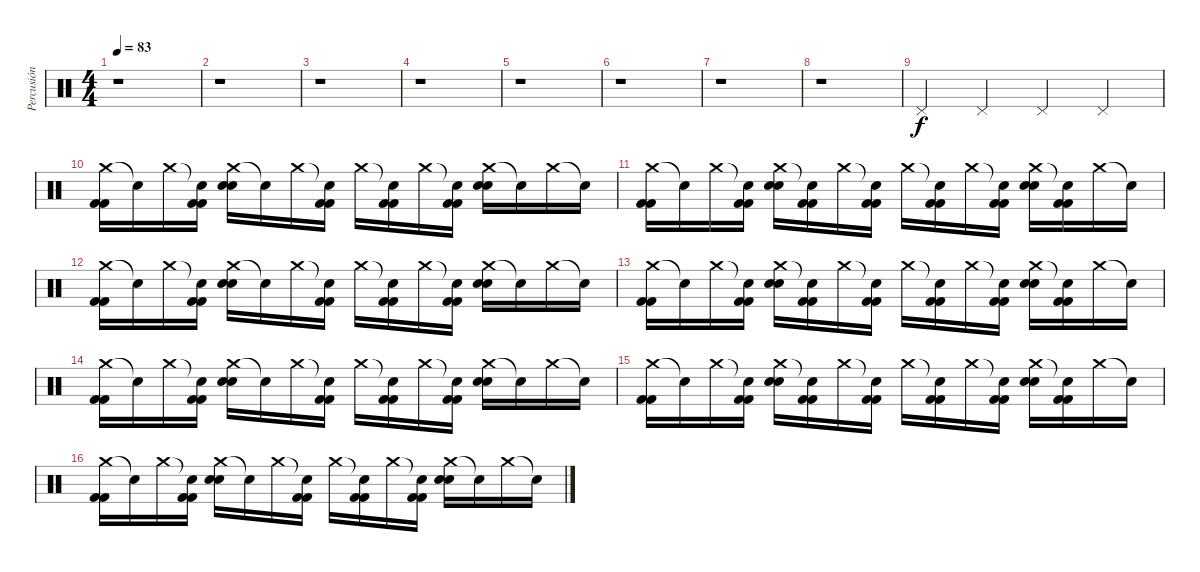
\track ("Percusión" "Percusión") {instrument percussion}
\staff {score}
\articulation defaults
\ts (4 4)
\tempo 83
\clef neutral
\ks c
r.1{dy f} |
r.1 |
r.1 |
r.1 |
r.1 |
r.1 |
r.1 |
r.1 |
"Pedal Hi-Hat (hit)".4 "Pedal Hi-Hat (hit)".4 "Pedal Hi-Hat (hit)".4 "Pedal Hi-Hat (hit)".4 |
("Crash medium (hit)" "Kick (hit) 2" "Kick (hit) 2").16 "Snare (hit)"{t}.16 "Crash medium (hit)".16 ("Snare (hit)"{t} "Kick (hit) 2" "Kick (hit) 2").16 ("Crash medium (hit)" "Electric Snare (hit)" "Electric Snare (hit)").16 "Snare (hit)"{t}.16 "Crash medium (hit)".16 ("Snare (hit)"{t} "Kick (hit) 2" "Kick (hit) 2").16 "Crash medium (hit)".16 ("Snare (hit)"{t} "Kick (hit) 2" "Kick (hit) 2").16 "Crash medium (hit)".16 ("Snare (hit)"{t} "Kick (hit) 2" "Kick (hit) 2").16 ("Crash medium (hit)" "Electric Snare (hit)" "Electric Snare (hit)").16 "Snare (hit)"{t}.16 "Crash medium (hit)".16 "Snare (hit)"{t}.16 |
("Crash medium (hit)" "Kick (hit) 2" "Kick (hit) 2").16 "Snare (hit)"{t}.16 "Crash medium (hit)".16 ("Snare (hit)"{t} "Kick (hit) 2" "Kick (hit) 2").16 ("Crash medium (hit)" "Electric Snare (hit)" "Electric Snare (hit)").16 ("Snare (hit)"{t} "Kick (hit) 2" "Kick (hit) 2").16 "Crash medium (hit)".16 ("Snare (hit)"{t} "Kick (hit) 2" "Kick (hit) 2").16 "Crash medium (hit)".16 ("Snare (hit)"{t} "Kick (hit) 2" "Kick (hit) 2").16 "Crash medium (hit)".16 ("Snare (hit)"{t} "Kick (hit) 2" "Kick (hit) 2").16 ("Crash medium (hit)" "Electric Snare (hit)" "Electric Snare (hit)").16 ("Snare (hit)"{t} "Kick (hit) 2" "Kick (hit) 2").16 "Crash medium (hit)".16 "Snare (hit)"{t}.16 |
("Crash medium (hit)" "Kick (hit) 2" "Kick (hit) 2").16 "Snare (hit)"{t}.16 "Crash medium (hit)".16 ("Snare (hit)"{t} "Kick (hit) 2" "Kick (hit) 2").16 ("Crash medium (hit)" "Electric Snare (hit)" "Electric Snare (hit)").16 "Snare (hit)"{t}.16 "Crash medium (hit)".16 ("Snare (hit)"{t} "Kick (hit) 2" "Kick (hit) 2").16 "Crash medium (hit)".16 ("Snare (hit)"{t} "Kick (hit) 2" "Kick (hit) 2").16 "Crash medium (hit)".16 ("Snare (hit)"{t} "Kick (hit) 2" "Kick (hit) 2").16 ("Crash medium (hit)" "Electric Snare (hit)" "Electric Snare (hit)").16 "Snare (hit)"{t}.16 "Crash medium (hit)".16 "Snare (hit)"{t}.16 |
("Crash medium (hit)" "Kick (hit) 2" "Kick (hit) 2").16 "Snare (hit)"{t}.16 "Crash medium (hit)".16 ("Snare (hit)"{t} "Kick (hit) 2" "Kick (hit) 2").16 ("Crash medium (hit)" "Electric Snare (hit)" "Electric Snare (hit)").16 ("Snare (hit)"{t} "Kick (hit) 2" "Kick (hit) 2").16 "Crash medium (hit)".16 ("Snare (hit)"{t} "Kick (hit) 2" "Kick (hit) 2").16 "Crash medium (hit)".16 ("Snare (hit)"{t} "Kick (hit) 2" "Kick (hit) 2").16 "Crash medium (hit)".16 ("Snare (hit)"{t} "Kick (hit) 2" "Kick (hit) 2").16 ("Crash medium (hit)" "Electric Snare (hit)" "Electric Snare (hit)").16 ("Snare (hit)"{t} "Kick (hit) 2" "Kick (hit) 2").16 "Crash medium (hit)".16 "Snare (hit)"{t}.16 |
("Crash medium (hit)" "Kick (hit) 2" "Kick (hit) 2").16 "Snare (hit)"{t}.16 "Crash medium (hit)".16 ("Snare (hit)"{t} "Kick (hit) 2" "Kick (hit) 2").16 ("Crash medium (hit)" "Electric Snare (hit)" "Electric Snare (hit)").16 "Snare (hit)"{t}.16 "Crash medium (hit)".16 ("Snare (hit)"{t} "Kick (hit) 2" "Kick (hit) 2").16 "Crash medium (hit)".16 ("Snare (hit)"{t} "Kick (hit) 2" "Kick (hit) 2").16 "Crash medium (hit)".16 ("Snare (hit)"{t} "Kick (hit) 2" "Kick (hit) 2").16 ("Crash medium (hit)" "Electric Snare (hit)" "Electric Snare (hit)").16 "Snare (hit)"{t}.16 "Crash medium (hit)".16 "Snare (hit)"{t}.16 |
("Crash medium (hit)" "Kick (hit) 2" "Kick (hit) 2").16 "Snare (hit)"{t}.16 "Crash medium (hit)".16 ("Snare (hit)"{t} "Kick (hit) 2" "Kick (hit) 2").16 ("Crash medium (hit)" "Electric Snare (hit)" "Electric Snare (hit)").16 ("Snare (hit)"{t} "Kick (hit) 2" "Kick (hit) 2").16 "Crash medium (hit)".16 ("Snare (hit)"{t} "Kick (hit) 2" "Kick (hit) 2").16 "Crash medium (hit)".16 ("Snare (hit)"{t} "Kick (hit) 2" "Kick (hit) 2").16 "Crash medium (hit)".16 ("Snare (hit)"{t} "Kick (hit) 2" "Kick (hit) 2").16 ("Crash medium (hit)" "Electric Snare (hit)" "Electric Snare (hit)").16 ("Snare (hit)"{t} "Kick (hit) 2" "Kick (hit) 2").16 "Crash medium (hit)".16 "Snare (hit)"{t}.16 |
("Crash medium (hit)" "Kick (hit) 2" "Kick (hit) 2").16 "Snare (hit)"{t}.16 "Crash medium (hit)".16 ("Snare (hit)"{t} "Kick (hit) 2" "Kick (hit) 2").16 ("Crash medium (hit)" "Electric Snare (hit)" "Electric Snare (hit)").16 "Snare (hit)"{t}.16 "Crash medium (hit)".16 ("Snare (hit)"{t} "Kick (hit) 2" "Kick (hit) 2").16 "Crash medium (hit)".16 ("Snare (hit)"{t} "Kick (hit) 2" "Kick (hit) 2").16 "Crash medium (hit)".16 ("Snare (hit)"{t} "Kick (hit) 2" "Kick (hit) 2").16 ("Crash medium (hit)" "Electric Snare (hit)" "Electric Snare (hit)").16 "Snare (hit)"{t}.16 "Crash medium (hit)".16 "Snare (hit)"{t}.16
